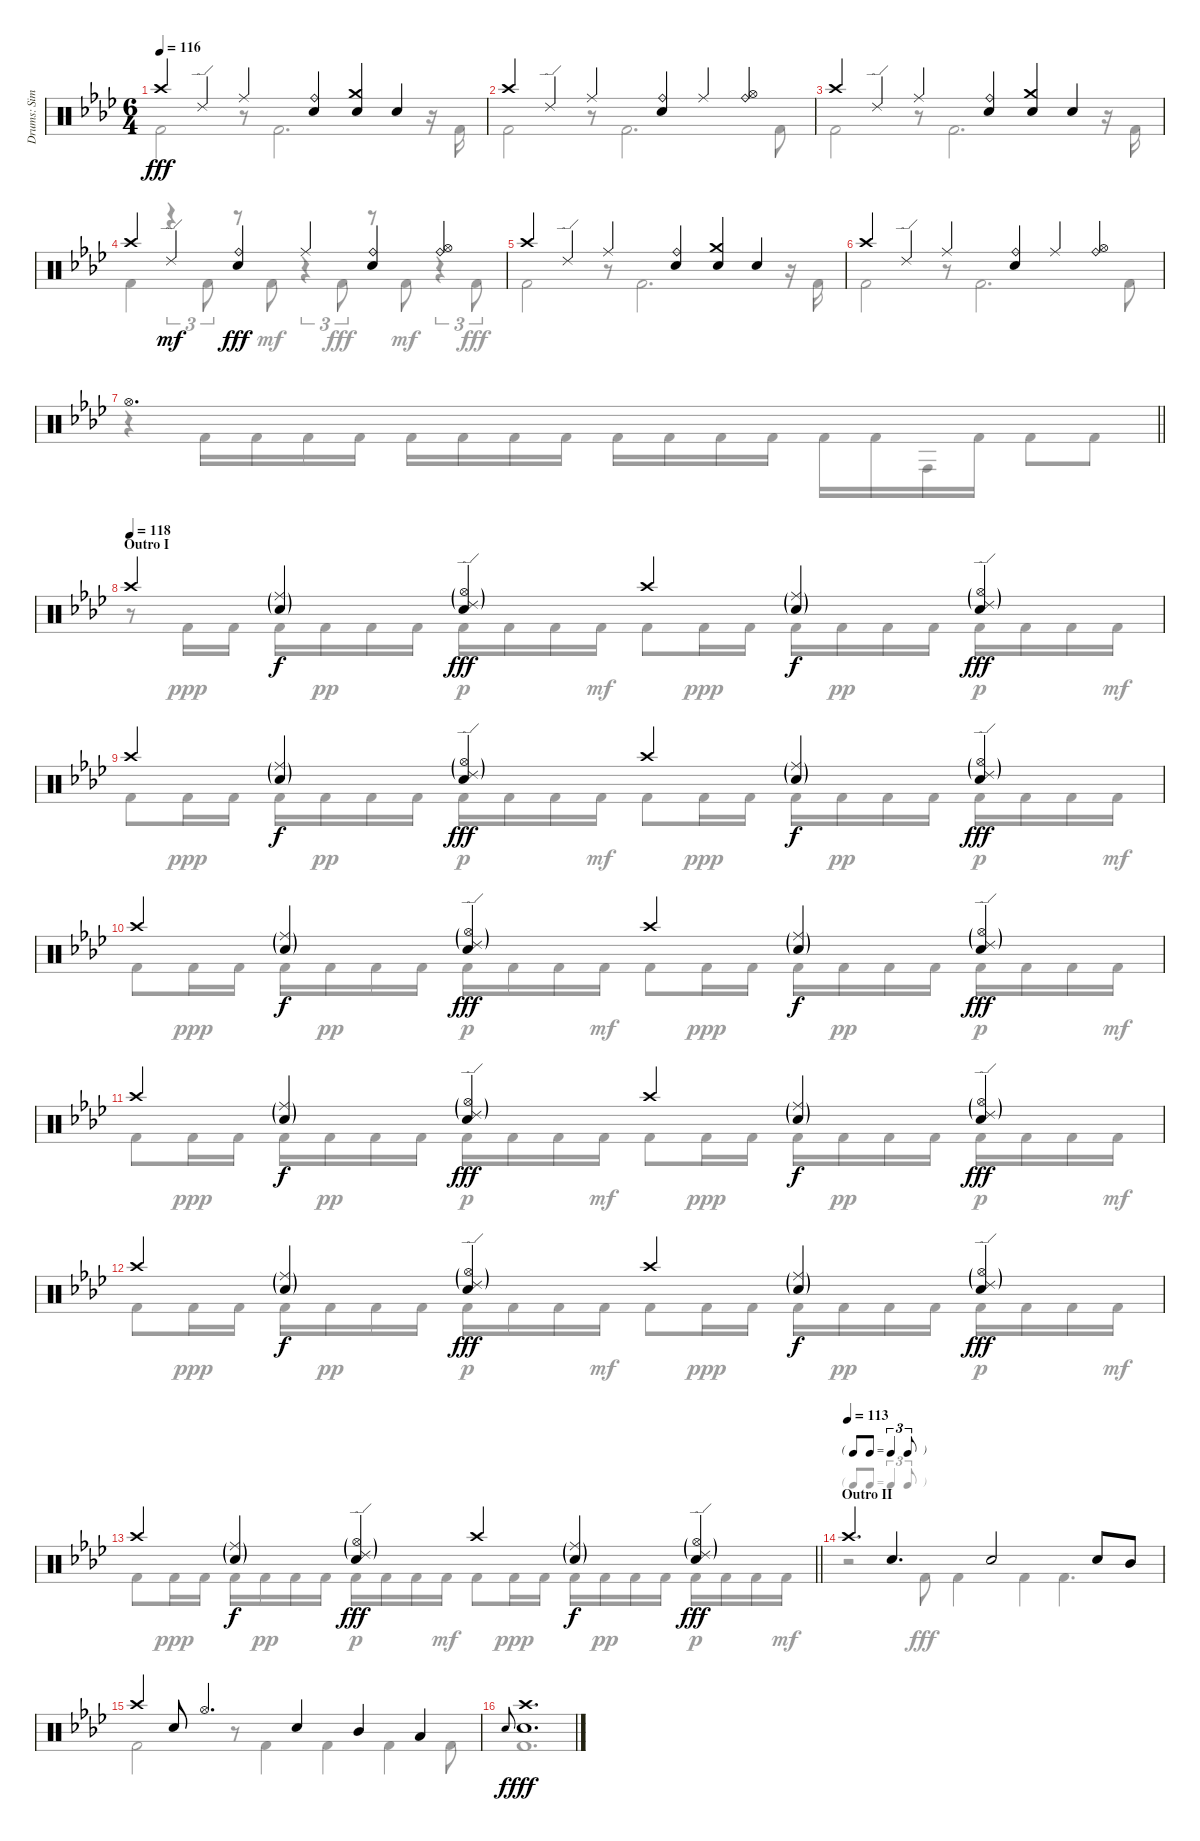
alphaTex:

\track ("Drums: Simon" "Drums: Sim") {instrument percussion}
\staff {score}
\articulation defaults
\voice
\ts (6 4)
\tempo 116
\clef neutral
\ks ab "Crash high (hit)".4{dy fff} "Ride (edge) 2".4 "Ride (middle)".4
("Ride (bell)" "Snare (hit) 2").4 ("Crash medium (hit)" "Snare (hit) 2").4 "Snare (hit) 2".4 |
"Crash high (hit)".4 "Ride (edge) 2".4 "Ride (middle)".4 ("Ride (bell)" "Snare (hit) 2").4 "Ride (middle)".4 ("Ride (bell)" "Hi-Hat (open)").4 |
"Crash high (hit)".4 "Ride (edge) 2".4 "Ride (middle)".4 ("Ride (bell)" "Snare (hit) 2").4 ("Crash medium (hit)" "Snare (hit) 2").4 "Snare (hit) 2".4 |
"Crash high (hit)".4 "Ride (edge) 2".4{dy mf} ("Ride (bell)" "Snare (hit) 2").4{dy fff} "Ride (middle)".4 ("Ride (bell)" "Snare (hit) 2").4 ("Ride (bell)" "Hi-Hat (open)").4 |
"Crash high (hit)".4 "Ride (edge) 2".4 "Ride (middle)".4 ("Ride (bell)" "Snare (hit) 2").4 ("Crash medium (hit)" "Snare (hit) 2").4 "Snare (hit) 2".4 |
"Crash high (hit)".4 "Ride (edge) 2".4 "Ride (middle)".4 ("Ride (bell)" "Snare (hit) 2").4 "Ride (middle)".4 ("Ride (bell)" "Hi-Hat (open)").4 |
\barLineRight lightlight "Hi-Hat (open)".1{d}
|
\section ("" "Outro I")
\tempo (118)
"Crash high (hit)".4 ("Ride (middle)"{g} "Electric Snare (hit)"{g}).4{dy f} ("Ride (edge) 2"{g} "Hi-Hat (open)"{g} "Electric Snare (hit)").4{dy fff} "Crash high (hit)".4 ("Ride (middle)"{g} "Electric Snare (hit)"{g}).4{dy f} ("Ride (edge) 2"{g} "Hi-Hat (open)"{g} "Electric Snare (hit)").4{dy fff} |
"Crash high (hit)".4 ("Ride (middle)"{g} "Electric Snare (hit)"{g}).4{dy f} ("Ride (edge) 2"{g} "Hi-Hat (open)"{g} "Electric Snare (hit)").4{dy fff} "Crash high (hit)".4 ("Ride (middle)"{g} "Electric Snare (hit)"{g}).4{dy f} ("Ride (edge) 2"{g} "Hi-Hat (open)"{g} "Electric Snare (hit)").4{dy fff} |
"Crash high (hit)".4 ("Ride (middle)"{g} "Electric Snare (hit)"{g}).4{dy f} ("Ride (edge) 2"{g} "Hi-Hat (open)"{g} "Electric Snare (hit)").4{dy fff} "Crash high (hit)".4 ("Ride (middle)"{g} "Electric Snare (hit)"{g}).4{dy f} ("Ride (edge) 2"{g} "Hi-Hat (open)"{g} "Electric Snare (hit)").4{dy fff} |
"Crash high (hit)".4 ("Ride (middle)"{g} "Electric Snare (hit)"{g}).4{dy f} ("Ride (edge) 2"{g} "Hi-Hat (open)"{g} "Electric Snare (hit)").4{dy fff} "Crash high (hit)".4 ("Ride (middle)"{g} "Electric Snare (hit)"{g}).4{dy f} ("Ride (edge) 2"{g} "Hi-Hat (open)"{g} "Electric Snare (hit)").4{dy fff} |
"Crash high (hit)".4 ("Ride (middle)"{g} "Electric Snare (hit)"{g}).4{dy f} ("Ride (edge) 2"{g} "Hi-Hat (open)"{g} "Electric Snare (hit)").4{dy fff} "Crash high (hit)".4 ("Ride (middle)"{g} "Electric Snare (hit)"{g}).4{dy f} ("Ride (edge) 2"{g} "Hi-Hat (open)"{g} "Electric Snare (hit)").4{dy fff} |
\barLineRight lightlight "Crash high (hit)".4
("Ride (middle)"{g} "Electric Snare (hit)"{g}).4{dy f} ("Ride (edge) 2"{g} "Hi-Hat (open)"{g} "Electric Snare (hit)").4{dy fff} "Crash high (hit)".4 ("Ride (middle)"{g} "Electric Snare (hit)"{g}).4{dy f} ("Ride (edge) 2"{g} "Hi-Hat (open)"{g} "Electric Snare (hit)").4{dy fff} |
\tf triplet8th
\section ("" "Outro II")
\tempo (113)
"Crash high (hit)".4{d} "Snare (hit) 2".4{d} "Snare (hit) 2".2 "Snare (hit) 2".8 "Mid Tom (hit)".8 |
"Crash high (hit)".4 "Snare (hit) 2".8 "Hi-Hat (open)".4{d} "Snare (hit) 2".4 "Mid Tom (hit)".4 "Low Tom (hit)".4 |
"Electric Snare (hit)".8{gr onbeat dy f} ("Crash high (hit)" "Snare (hit) 2").1{d dy fff volume 0}
\voice
\clef neutral
\ottava regular
\simile none
\ks ab "Kick (hit) 2".2{dy fff}
r.8 "Kick (hit) 2".2{d} r.16 "Kick (hit) 2".16 |
"Kick (hit) 2".2 r.8 "Kick (hit) 2".2{d} "Kick (hit) 2".8 |
"Kick (hit) 2".2 r.8 "Kick (hit) 2".2{d} r.16 "Kick (hit) 2".16 |
"Kick (hit) 2".4 r.4{tu (3 2)} "Kick (hit) 2".8{tu (3 2)} r.8 "Kick (hit) 2".8{dy mf} r.4{tu (3 2)} "Kick (hit) 2".8{tu (3 2) dy fff} r.8 "Kick (hit) 2".8{dy mf} r.4{tu (3 2)} "Kick (hit) 2".8{tu (3 2) dy fff} |
"Kick (hit) 2".2 r.8 "Kick (hit) 2".2{d} r.16 "Kick (hit) 2".16 |
"Kick (hit) 2".2 r.8 "Kick (hit) 2".2{d} "Kick (hit) 2".8 |
\barLineRight lightlight
r.4 "Kick (hit) 2".16 "Kick (hit) 2".16 "Kick (hit) 2".16 "Kick (hit) 2".16 "Kick (hit) 2".16 "Kick (hit) 2".16 "Kick (hit) 2".16 "Kick (hit) 2".16 "Kick (hit) 2".16 "Kick (hit) 2".16 "Kick (hit) 2".16 "Kick (hit) 2".16 "Kick (hit) 2".16 "Kick (hit) 2".16 "Conga high (hit)".16 "Kick (hit) 2".16 "Kick (hit) 2".8 "Kick (hit) 2".8 |
r.8 "Kick (hit) 2".16{dy ppp} "Kick (hit) 2".16 "Kick (hit) 2".16 "Kick (hit) 2".16{dy pp} "Kick (hit) 2".16 "Kick (hit) 2".16 "Kick (hit) 2".16{dy p} "Kick (hit) 2".16 "Kick (hit) 2".16 "Kick (hit) 2".16{dy mf} "Kick (hit) 2".8 "Kick (hit) 2".16{dy ppp} "Kick (hit) 2".16 "Kick (hit) 2".16 "Kick (hit) 2".16{dy pp} "Kick (hit) 2".16 "Kick (hit) 2".16 "Kick (hit) 2".16{dy p} "Kick (hit) 2".16 "Kick (hit) 2".16 "Kick (hit) 2".16{dy mf} |
"Kick (hit) 2".8 "Kick (hit) 2".16{dy ppp} "Kick (hit) 2".16 "Kick (hit) 2".16 "Kick (hit) 2".16{dy pp} "Kick (hit) 2".16 "Kick (hit) 2".16 "Kick (hit) 2".16{dy p} "Kick (hit) 2".16 "Kick (hit) 2".16 "Kick (hit) 2".16{dy mf} "Kick (hit) 2".8 "Kick (hit) 2".16{dy ppp} "Kick (hit) 2".16 "Kick (hit) 2".16 "Kick (hit) 2".16{dy pp} "Kick (hit) 2".16 "Kick (hit) 2".16 "Kick (hit) 2".16{dy p} "Kick (hit) 2".16 "Kick (hit) 2".16 "Kick (hit) 2".16{dy mf} |
"Kick (hit) 2".8 "Kick (hit) 2".16{dy ppp} "Kick (hit) 2".16 "Kick (hit) 2".16 "Kick (hit) 2".16{dy pp} "Kick (hit) 2".16 "Kick (hit) 2".16 "Kick (hit) 2".16{dy p} "Kick (hit) 2".16 "Kick (hit) 2".16 "Kick (hit) 2".16{dy mf} "Kick (hit) 2".8 "Kick (hit) 2".16{dy ppp} "Kick (hit) 2".16 "Kick (hit) 2".16 "Kick (hit) 2".16{dy pp} "Kick (hit) 2".16 "Kick (hit) 2".16 "Kick (hit) 2".16{dy p} "Kick (hit) 2".16 "Kick (hit) 2".16 "Kick (hit) 2".16{dy mf} |
"Kick (hit) 2".8 "Kick (hit) 2".16{dy ppp} "Kick (hit) 2".16 "Kick (hit) 2".16 "Kick (hit) 2".16{dy pp} "Kick (hit) 2".16 "Kick (hit) 2".16 "Kick (hit) 2".16{dy p} "Kick (hit) 2".16 "Kick (hit) 2".16 "Kick (hit) 2".16{dy mf} "Kick (hit) 2".8 "Kick (hit) 2".16{dy ppp} "Kick (hit) 2".16 "Kick (hit) 2".16 "Kick (hit) 2".16{dy pp} "Kick (hit) 2".16 "Kick (hit) 2".16 "Kick (hit) 2".16{dy p} "Kick (hit) 2".16 "Kick (hit) 2".16 "Kick (hit) 2".16{dy mf} |
"Kick (hit) 2".8 "Kick (hit) 2".16{dy ppp} "Kick (hit) 2".16 "Kick (hit) 2".16 "Kick (hit) 2".16{dy pp} "Kick (hit) 2".16 "Kick (hit) 2".16 "Kick (hit) 2".16{dy p} "Kick (hit) 2".16 "Kick (hit) 2".16 "Kick (hit) 2".16{dy mf} "Kick (hit) 2".8 "Kick (hit) 2".16{dy ppp} "Kick (hit) 2".16 "Kick (hit) 2".16 "Kick (hit) 2".16{dy pp} "Kick (hit) 2".16 "Kick (hit) 2".16 "Kick (hit) 2".16{dy p} "Kick (hit) 2".16 "Kick (hit) 2".16 "Kick (hit) 2".16{dy mf} |
\barLineRight lightlight "Kick (hit) 2".8 "Kick (hit) 2".16{dy ppp} "Kick (hit) 2".16 "Kick (hit) 2".16 "Kick (hit) 2".16{dy pp} "Kick (hit) 2".16 "Kick (hit) 2".16 "Kick (hit) 2".16{dy p} "Kick (hit) 2".16 "Kick (hit) 2".16 "Kick (hit) 2".16{dy mf} "Kick (hit) 2".8 "Kick (hit) 2".16{dy ppp} "Kick (hit) 2".16 "Kick (hit) 2".16 "Kick (hit) 2".16{dy pp} "Kick (hit) 2".16 "Kick (hit) 2".16 "Kick (hit) 2".16{dy p} "Kick (hit) 2".16 "Kick (hit) 2".16 "Kick (hit) 2".16{dy mf}
|
r.2 "Kick (hit) 2".8{dy fff} "Kick (hit) 2".4 "Kick (hit) 2".4 "Kick (hit) 2".4{d} |
"Kick (hit) 2".2 r.8 "Kick (hit) 2".4 "Kick (hit) 2".4 "Kick (hit) 2".4 "Kick (hit) 2".8 |
"Kick (hit) 2".1{d}
